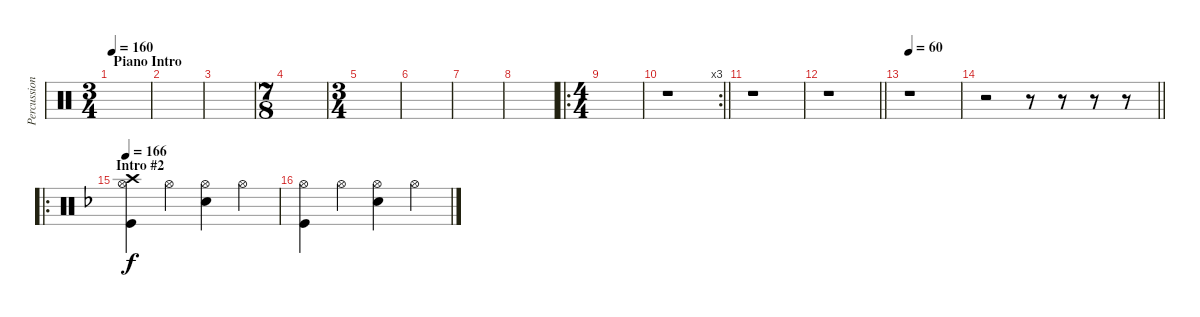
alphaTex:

\track ("Percussion" "Percussion") {instrument percussion}
\staff {score}
\articulation defaults
\ts (3 4)
\section ("" "Piano Intro")
\tempo 160
\tempo 95
\tempo 160
\clef neutral
\ks c
|
|
|
\ts (7 8)
|
\ts (3 4)
|
|
|
|
\ro
\ts (4 4)
|
\rc 3
\barLineRight lightlight
r.1 |
\section ("" " ")
r.1 |
\barLineRight lightlight
r.1 |
\tempo 60
r.1 |
\barLineRight lightlight
r.2 r.8 r.8 r.8 r.8 |
\ro
\section ("" "Intro #2")
\tempo 166
\ks f
("Crash high (hit)" "Hi-Hat (open)" "Kick (hit)").4 "Hi-Hat (open)".4 ("Hi-Hat (open)" "Electric Snare (hit)").4 "Hi-Hat (open)".4 |
("Hi-Hat (open)" "Kick (hit)").4 "Hi-Hat (open)".4 ("Hi-Hat (open)" "Electric Snare (hit)").4 "Hi-Hat (open)".4
